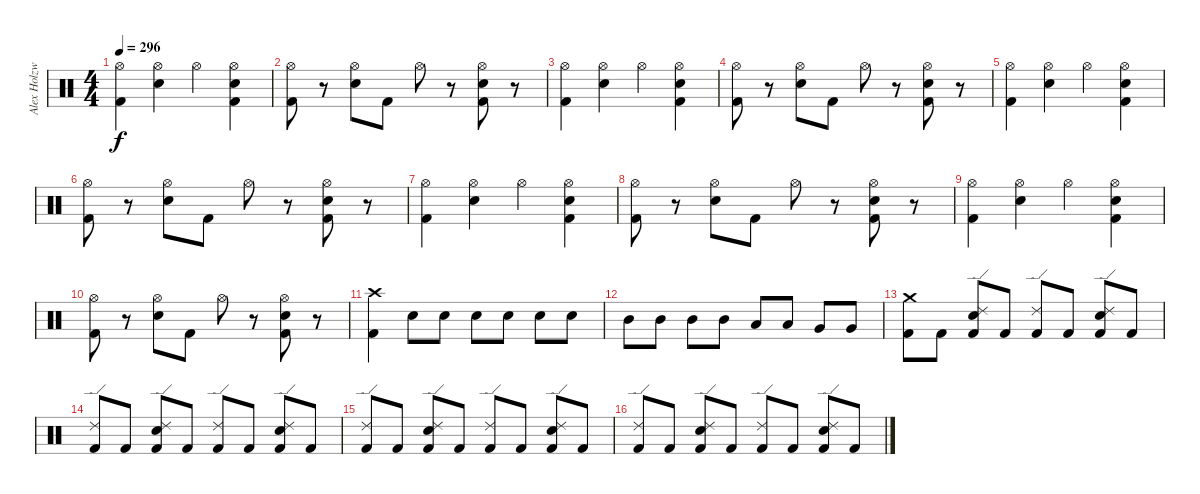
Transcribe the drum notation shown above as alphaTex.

\track ("Alex Holzwarth" "Alex Holzw") {instrument percussion}
\staff {score}
\articulation defaults
\ts (4 4)
\tempo 296
\clef neutral
\ks c
("Hi-Hat (open)" "Kick (hit) 2").4{dy f} ("Hi-Hat (open)" "Snare (hit) 2").4 "Hi-Hat (open)".4 ("Hi-Hat (open)" "Snare (hit) 2" "Kick (hit) 2").4 |
("Hi-Hat (open)" "Kick (hit) 2").8 r.8 ("Hi-Hat (open)" "Snare (hit) 2").8 "Kick (hit) 2".8 "Hi-Hat (open)".8 r.8 ("Hi-Hat (open)" "Snare (hit) 2" "Kick (hit) 2").8 r.8 |
("Hi-Hat (open)" "Kick (hit) 2").4 ("Hi-Hat (open)" "Snare (hit) 2").4 "Hi-Hat (open)".4 ("Hi-Hat (open)" "Snare (hit) 2" "Kick (hit) 2").4 |
("Hi-Hat (open)" "Kick (hit) 2").8 r.8 ("Hi-Hat (open)" "Snare (hit) 2").8 "Kick (hit) 2".8 "Hi-Hat (open)".8 r.8 ("Hi-Hat (open)" "Snare (hit) 2" "Kick (hit) 2").8 r.8 |
("Hi-Hat (open)" "Kick (hit) 2").4 ("Hi-Hat (open)" "Snare (hit) 2").4 "Hi-Hat (open)".4 ("Hi-Hat (open)" "Snare (hit) 2" "Kick (hit) 2").4 |
("Hi-Hat (open)" "Kick (hit) 2").8 r.8 ("Hi-Hat (open)" "Snare (hit) 2").8 "Kick (hit) 2".8 "Hi-Hat (open)".8 r.8 ("Hi-Hat (open)" "Snare (hit) 2" "Kick (hit) 2").8 r.8 |
("Hi-Hat (open)" "Kick (hit) 2").4 ("Hi-Hat (open)" "Snare (hit) 2").4 "Hi-Hat (open)".4 ("Hi-Hat (open)" "Snare (hit) 2" "Kick (hit) 2").4 |
("Hi-Hat (open)" "Kick (hit) 2").8 r.8 ("Hi-Hat (open)" "Snare (hit) 2").8 "Kick (hit) 2".8 "Hi-Hat (open)".8 r.8 ("Hi-Hat (open)" "Snare (hit) 2" "Kick (hit) 2").8 r.8 |
("Hi-Hat (open)" "Kick (hit) 2").4 ("Hi-Hat (open)" "Snare (hit) 2").4 "Hi-Hat (open)".4 ("Hi-Hat (open)" "Snare (hit) 2" "Kick (hit) 2").4 |
("Hi-Hat (open)" "Kick (hit) 2").8 r.8 ("Hi-Hat (open)" "Snare (hit) 2").8 "Kick (hit) 2".8 "Hi-Hat (open)".8 r.8 ("Hi-Hat (open)" "Snare (hit) 2" "Kick (hit) 2").8 r.8 |
("Crash high (hit)" "Kick (hit) 2").4 "Snare (hit) 2".8 "Snare (hit) 2".8 "Snare (hit) 2".8 "Snare (hit) 2".8 "Snare (hit) 2".8 "Snare (hit) 2".8 |
"Mid Tom (hit)".8 "Mid Tom (hit)".8 "Mid Tom (hit)".8 "Mid Tom (hit)".8 "Low Tom (hit)".8 "Low Tom (hit)".8 "Very Low Tom (hit)".8 "Very Low Tom (hit)".8 |
("Crash medium (hit)" "Kick (hit) 2").8 "Kick (hit) 2".8 ("Ride (edge) 2" "Snare (hit) 2" "Kick (hit) 2").8 "Kick (hit) 2".8 ("Ride (edge) 2" "Kick (hit) 2").8 "Kick (hit) 2".8 ("Ride (edge) 2" "Snare (hit) 2" "Kick (hit) 2").8 "Kick (hit) 2".8 |
("Ride (edge) 2" "Kick (hit) 2").8 "Kick (hit) 2".8 ("Ride (edge) 2" "Snare (hit) 2" "Kick (hit) 2").8 "Kick (hit) 2".8 ("Ride (edge) 2" "Kick (hit) 2").8 "Kick (hit) 2".8 ("Ride (edge) 2" "Snare (hit) 2" "Kick (hit) 2").8 "Kick (hit) 2".8 |
("Ride (edge) 2" "Kick (hit) 2").8 "Kick (hit) 2".8 ("Ride (edge) 2" "Snare (hit) 2" "Kick (hit) 2").8 "Kick (hit) 2".8 ("Ride (edge) 2" "Kick (hit) 2").8 "Kick (hit) 2".8 ("Ride (edge) 2" "Snare (hit) 2" "Kick (hit) 2").8 "Kick (hit) 2".8 |
("Ride (edge) 2" "Kick (hit) 2").8 "Kick (hit) 2".8 ("Ride (edge) 2" "Snare (hit) 2" "Kick (hit) 2").8 "Kick (hit) 2".8 ("Ride (edge) 2" "Kick (hit) 2").8 "Kick (hit) 2".8 ("Ride (edge) 2" "Snare (hit) 2" "Kick (hit) 2").8 "Kick (hit) 2".8
